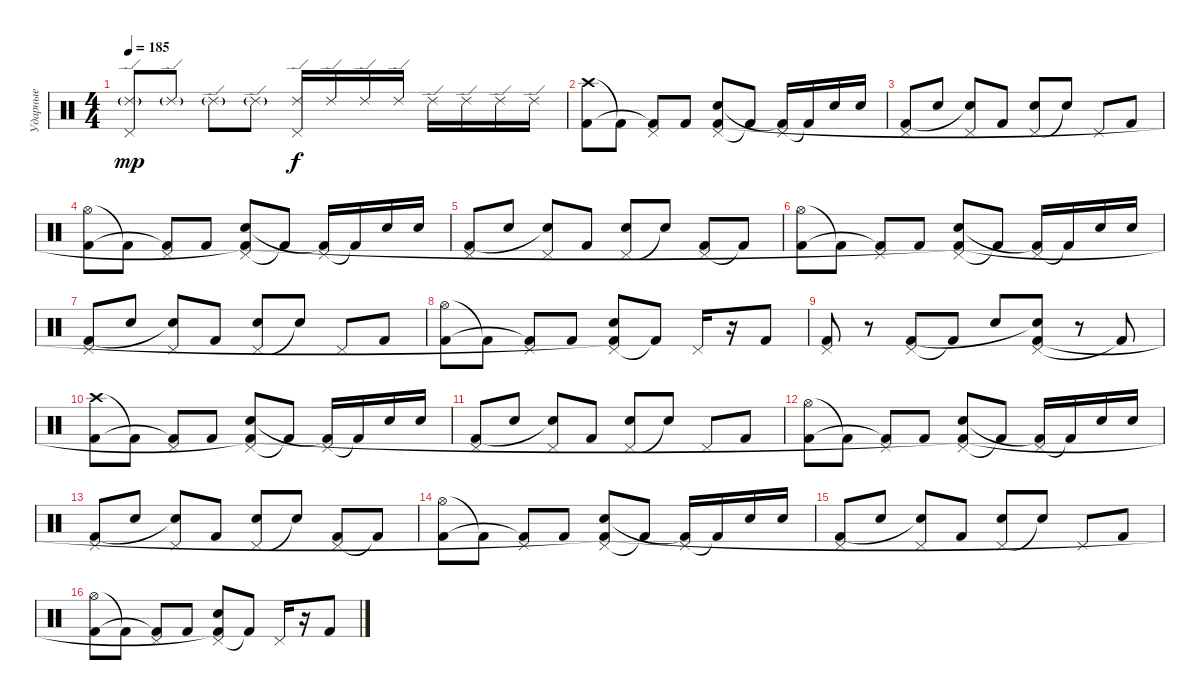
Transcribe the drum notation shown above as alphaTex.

\track ("Ударные" "Ударные") {instrument percussion}
\staff {score}
\articulation defaults
\ts (4 4)
\tempo 185
\clef neutral
\ks c
("Pedal Hi-Hat (hit)" "Ride (edge) 2"{g}).8{dy mp} "Ride (edge) 2"{g}.8 "Ride (edge) 2"{g}.8 "Ride (edge) 2"{g}.8 ("Pedal Hi-Hat (hit)" "Ride (edge) 2").16{dy f} "Ride (edge) 2".16 "Ride (edge) 2".16 "Ride (edge) 2".16 "Ride (edge) 2".16 "Ride (edge) 2".16 "Ride (edge) 2".16 "Ride (edge) 2".16 |
("Crash high (hit)" "Kick (hit) 2").8 "Kick (hit) 2"{t}.8 ("Pedal Hi-Hat (hit)" "Kick (hit) 2"{t}).8 "Kick (hit) 2".8 ("Pedal Hi-Hat (hit)" "Electric Snare (hit)" "Kick (hit) 2").8 "Kick (hit) 2"{t}.8 ("Pedal Hi-Hat (hit)" "Kick (hit) 2"{t}).16 "Kick (hit) 2"{t}.16 "Electric Snare (hit)".16 "Electric Snare (hit)".16 |
("Pedal Hi-Hat (hit)" "Kick (hit) 2").8 "Electric Snare (hit)".8 ("Pedal Hi-Hat (hit)" "Snare (hit)"{t}).8 "Kick (hit) 2".8 ("Pedal Hi-Hat (hit)" "Electric Snare (hit)").8 "Electric Snare (hit)"{t}.8 "Pedal Hi-Hat (hit)".8 "Kick (hit) 2".8 |
("Hi-Hat (open)" "Kick (hit) 2").8 "Kick (hit) 2"{t}.8 ("Pedal Hi-Hat (hit)" "Kick (hit) 2"{t}).8 "Kick (hit) 2".8 ("Pedal Hi-Hat (hit)" "Electric Snare (hit)" "Kick (hit) 2"{t}).8 "Kick (hit) 2"{t}.8 ("Pedal Hi-Hat (hit)" "Kick (hit) 2"{t}).16 "Kick (hit) 2"{t}.16 "Electric Snare (hit)".16 "Electric Snare (hit)".16 |
("Pedal Hi-Hat (hit)" "Kick (hit) 2").8 "Electric Snare (hit)".8 ("Pedal Hi-Hat (hit)" "Snare (hit)"{t}).8 "Kick (hit) 2".8 ("Pedal Hi-Hat (hit)" "Electric Snare (hit)").8 "Electric Snare (hit)"{t}.8 ("Pedal Hi-Hat (hit)" "Kick (hit) 2").8 "Kick (hit) 2"{t}.8 |
("Hi-Hat (open)" "Kick (hit) 2").8 "Kick (hit) 2"{t}.8 ("Pedal Hi-Hat (hit)" "Kick (hit) 2"{t}).8 "Kick (hit) 2".8 ("Pedal Hi-Hat (hit)" "Electric Snare (hit)" "Kick (hit) 2"{t}).8 "Kick (hit) 2"{t}.8 ("Pedal Hi-Hat (hit)" "Kick (hit) 2"{t}).16 "Kick (hit) 2"{t}.16 "Electric Snare (hit)".16 "Electric Snare (hit)".16 |
("Pedal Hi-Hat (hit)" "Kick (hit) 2").8 "Electric Snare (hit)".8 ("Pedal Hi-Hat (hit)" "Snare (hit)"{t}).8 "Kick (hit) 2".8 ("Pedal Hi-Hat (hit)" "Electric Snare (hit)").8 "Electric Snare (hit)"{t}.8 "Pedal Hi-Hat (hit)".8 "Kick (hit) 2".8 |
("Hi-Hat (open)" "Kick (hit) 2").8 "Kick (hit) 2"{t}.8 ("Pedal Hi-Hat (hit)" "Kick (hit) 2"{t}).8 "Kick (hit) 2".8 ("Pedal Hi-Hat (hit)" "Electric Snare (hit)" "Kick (hit) 2"{t}).8 "Kick (hit) 2"{t}.8 "Pedal Hi-Hat (hit)".16 r.16 "Kick (hit) 2".8 |
("Pedal Hi-Hat (hit)" "Kick (hit) 2").8 r.8 ("Pedal Hi-Hat (hit)" "Kick (hit) 2").8 "Kick (hit) 2"{t}.8 "Electric Snare (hit)".8 ("Pedal Hi-Hat (hit)" "Electric Snare (hit)"{t} "Kick (hit) 2").8 r.8 "Kick (hit) 2"{t}.8 |
("Crash high (hit)" "Kick (hit) 2").8 "Kick (hit) 2"{t}.8 ("Pedal Hi-Hat (hit)" "Kick (hit) 2"{t}).8 "Kick (hit) 2".8 ("Pedal Hi-Hat (hit)" "Electric Snare (hit)" "Kick (hit) 2"{t}).8 "Kick (hit) 2"{t}.8 ("Pedal Hi-Hat (hit)" "Kick (hit) 2"{t}).16 "Kick (hit) 2"{t}.16 "Electric Snare (hit)".16 "Electric Snare (hit)".16 |
("Pedal Hi-Hat (hit)" "Kick (hit) 2").8 "Electric Snare (hit)".8 ("Pedal Hi-Hat (hit)" "Snare (hit)"{t}).8 "Kick (hit) 2".8 ("Pedal Hi-Hat (hit)" "Electric Snare (hit)").8 "Electric Snare (hit)"{t}.8 "Pedal Hi-Hat (hit)".8 "Kick (hit) 2".8 |
("Hi-Hat (open)" "Kick (hit) 2").8 "Kick (hit) 2"{t}.8 ("Pedal Hi-Hat (hit)" "Kick (hit) 2"{t}).8 "Kick (hit) 2".8 ("Pedal Hi-Hat (hit)" "Electric Snare (hit)" "Kick (hit) 2"{t}).8 "Kick (hit) 2"{t}.8 ("Pedal Hi-Hat (hit)" "Kick (hit) 2"{t}).16 "Kick (hit) 2"{t}.16 "Electric Snare (hit)".16 "Electric Snare (hit)".16 |
("Pedal Hi-Hat (hit)" "Kick (hit) 2").8 "Electric Snare (hit)".8 ("Pedal Hi-Hat (hit)" "Snare (hit)"{t}).8 "Kick (hit) 2".8 ("Pedal Hi-Hat (hit)" "Electric Snare (hit)").8 "Electric Snare (hit)"{t}.8 ("Pedal Hi-Hat (hit)" "Kick (hit) 2").8 "Kick (hit) 2"{t}.8 |
("Hi-Hat (open)" "Kick (hit) 2").8 "Kick (hit) 2"{t}.8 ("Pedal Hi-Hat (hit)" "Kick (hit) 2"{t}).8 "Kick (hit) 2".8 ("Pedal Hi-Hat (hit)" "Electric Snare (hit)" "Kick (hit) 2"{t}).8 "Kick (hit) 2"{t}.8 ("Pedal Hi-Hat (hit)" "Kick (hit) 2"{t}).16 "Kick (hit) 2"{t}.16 "Electric Snare (hit)".16 "Electric Snare (hit)".16 |
("Pedal Hi-Hat (hit)" "Kick (hit) 2").8 "Electric Snare (hit)".8 ("Pedal Hi-Hat (hit)" "Snare (hit)"{t}).8 "Kick (hit) 2".8 ("Pedal Hi-Hat (hit)" "Electric Snare (hit)").8 "Electric Snare (hit)"{t}.8 "Pedal Hi-Hat (hit)".8 "Kick (hit) 2".8 |
("Hi-Hat (open)" "Kick (hit) 2").8 "Kick (hit) 2"{t}.8 ("Pedal Hi-Hat (hit)" "Kick (hit) 2"{t}).8 "Kick (hit) 2".8 ("Pedal Hi-Hat (hit)" "Electric Snare (hit)" "Kick (hit) 2"{t}).8 "Kick (hit) 2"{t}.8 "Pedal Hi-Hat (hit)".16 r.16 "Kick (hit) 2".8
